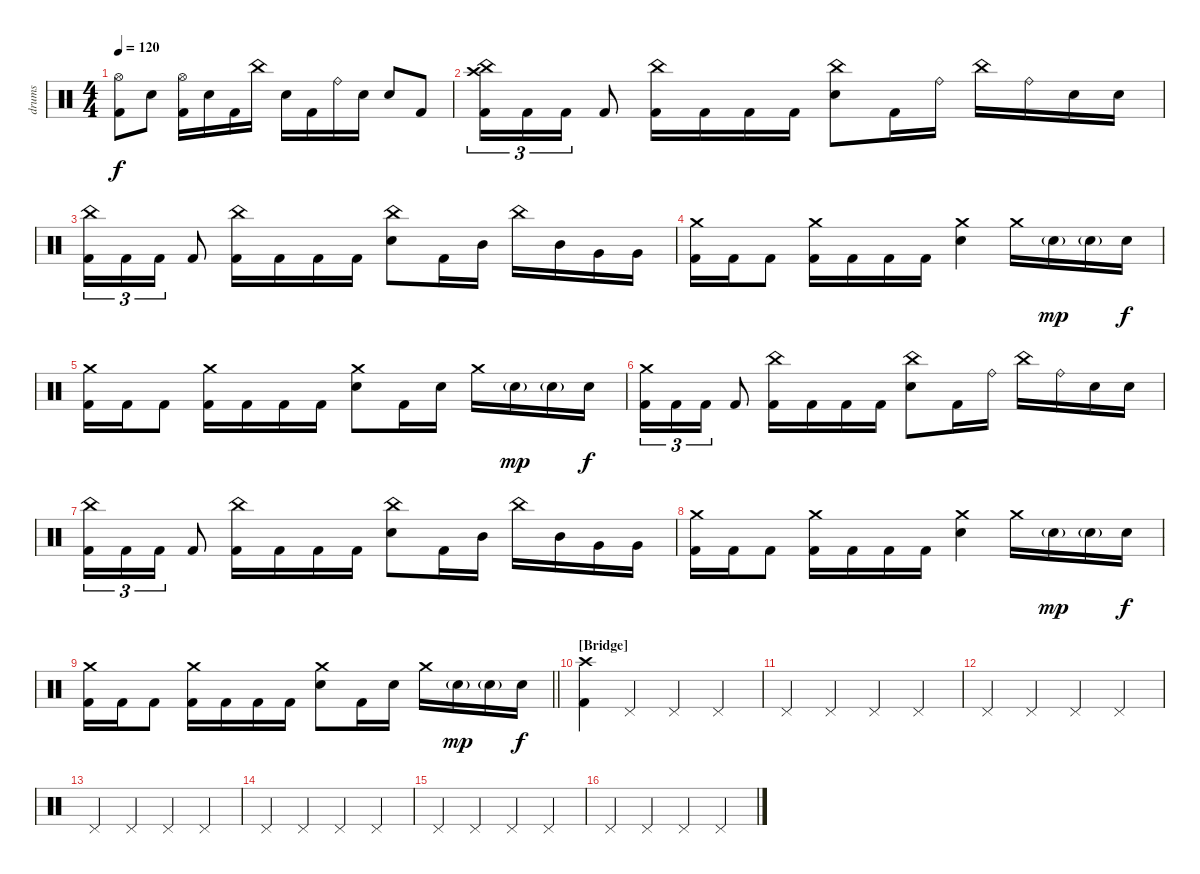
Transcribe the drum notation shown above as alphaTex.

\track ("drums" "drums") {instrument percussion}
\staff {score}
\articulation defaults
\ts (4 4)
\tempo 120
\clef neutral
\ks c
("Hi-Hat (open)" "Kick (hit) 2").8{dy f} "Electric Snare (hit)".8 ("Hi-Hat (open)" "Kick (hit) 2").16 "Electric Snare (hit)".16 "Kick (hit) 2".16 "China (hit)".16 "Electric Snare (hit)".16 "Kick (hit) 2".16 "Ride (bell)".16 "Electric Snare (hit)".16 "Electric Snare (hit)".8 "Kick (hit) 2".8 |
("China (hit)" "Crash high (hit)" "Kick (hit) 2").16{tu (3 2)} "Kick (hit) 2".16{tu (3 2)} "Kick (hit) 2".16{tu (3 2)} "Kick (hit) 2".8 ("China (hit)" "Kick (hit) 2").16 "Kick (hit) 2".16 "Kick (hit) 2".16 "Kick (hit) 2".16 ("China (hit)" "Electric Snare (hit)").8 "Kick (hit) 2".16 "Ride (bell)".16 "China (hit)".16 "Ride (bell)".16 "Electric Snare (hit)".16 "Electric Snare (hit)".16 |
("China (hit)" "Kick (hit) 2").16{tu (3 2)} "Kick (hit) 2".16{tu (3 2)} "Kick (hit) 2".16{tu (3 2)} "Kick (hit) 2".8 ("China (hit)" "Kick (hit) 2").16 "Kick (hit) 2".16 "Kick (hit) 2".16 "Kick (hit) 2".16 ("China (hit)" "Electric Snare (hit)").8 "Kick (hit) 2".16 "Mid Tom (hit)".16 "China (hit)".16 "Mid Tom (hit)".16 "Very Low Tom (hit)".16 "Very Low Tom (hit)".16 |
("Crash medium (hit)" "Kick (hit) 2").16 "Kick (hit) 2".16 "Kick (hit) 2".8 ("Crash medium (hit)" "Kick (hit) 2").16 "Kick (hit) 2".16 "Kick (hit) 2".16 "Kick (hit) 2".16 ("Crash medium (hit)" "Electric Snare (hit)").4 "Crash medium (hit)".16 "Electric Snare (hit)"{g}.16{dy mp} "Electric Snare (hit)"{g}.16 "Electric Snare (hit)".16{dy f} |
("Crash medium (hit)" "Kick (hit) 2").16 "Kick (hit) 2".16 "Kick (hit) 2".8 ("Crash medium (hit)" "Kick (hit) 2").16 "Kick (hit) 2".16 "Kick (hit) 2".16 "Kick (hit) 2".16 ("Crash medium (hit)" "Electric Snare (hit)").8 "Kick (hit) 2".16 "Electric Snare (hit)".16 "Crash medium (hit)".16 "Electric Snare (hit)"{g}.16{dy mp} "Electric Snare (hit)"{g}.16 "Electric Snare (hit)".16{dy f} |
("Crash medium (hit)" "Kick (hit) 2").16{tu (3 2)} "Kick (hit) 2".16{tu (3 2)} "Kick (hit) 2".16{tu (3 2)} "Kick (hit) 2".8 ("China (hit)" "Kick (hit) 2").16 "Kick (hit) 2".16 "Kick (hit) 2".16 "Kick (hit) 2".16 ("China (hit)" "Electric Snare (hit)").8 "Kick (hit) 2".16 "Ride (bell)".16 "China (hit)".16 "Ride (bell)".16 "Electric Snare (hit)".16 "Electric Snare (hit)".16 |
("China (hit)" "Kick (hit) 2").16{tu (3 2)} "Kick (hit) 2".16{tu (3 2)} "Kick (hit) 2".16{tu (3 2)} "Kick (hit) 2".8 ("China (hit)" "Kick (hit) 2").16 "Kick (hit) 2".16 "Kick (hit) 2".16 "Kick (hit) 2".16 ("China (hit)" "Electric Snare (hit)").8 "Kick (hit) 2".16 "Mid Tom (hit)".16 "China (hit)".16 "Mid Tom (hit)".16 "Very Low Tom (hit)".16 "Very Low Tom (hit)".16 |
("Crash medium (hit)" "Kick (hit) 2").16 "Kick (hit) 2".16 "Kick (hit) 2".8 ("Crash medium (hit)" "Kick (hit) 2").16 "Kick (hit) 2".16 "Kick (hit) 2".16 "Kick (hit) 2".16 ("Crash medium (hit)" "Electric Snare (hit)").4 "Crash medium (hit)".16 "Electric Snare (hit)"{g}.16{dy mp} "Electric Snare (hit)"{g}.16 "Electric Snare (hit)".16{dy f} |
\barLineRight lightlight
("Crash medium (hit)" "Kick (hit) 2").16 "Kick (hit) 2".16 "Kick (hit) 2".8 ("Crash medium (hit)" "Kick (hit) 2").16 "Kick (hit) 2".16 "Kick (hit) 2".16 "Kick (hit) 2".16 ("Crash medium (hit)" "Electric Snare (hit)").8 "Kick (hit) 2".16 "Electric Snare (hit)".16 "Crash medium (hit)".16 "Electric Snare (hit)"{g}.16{dy mp} "Electric Snare (hit)"{g}.16 "Electric Snare (hit)".16{dy f} |
\section ("" "[Bridge]")
("Crash high (hit)" "Kick (hit) 2").4 "Pedal Hi-Hat (hit)".4 "Pedal Hi-Hat (hit)".4 "Pedal Hi-Hat (hit)".4 |
"Pedal Hi-Hat (hit)".4 "Pedal Hi-Hat (hit)".4 "Pedal Hi-Hat (hit)".4 "Pedal Hi-Hat (hit)".4 |
"Pedal Hi-Hat (hit)".4 "Pedal Hi-Hat (hit)".4 "Pedal Hi-Hat (hit)".4 "Pedal Hi-Hat (hit)".4 |
"Pedal Hi-Hat (hit)".4 "Pedal Hi-Hat (hit)".4 "Pedal Hi-Hat (hit)".4 "Pedal Hi-Hat (hit)".4 |
"Pedal Hi-Hat (hit)".4 "Pedal Hi-Hat (hit)".4 "Pedal Hi-Hat (hit)".4 "Pedal Hi-Hat (hit)".4 |
"Pedal Hi-Hat (hit)".4 "Pedal Hi-Hat (hit)".4 "Pedal Hi-Hat (hit)".4 "Pedal Hi-Hat (hit)".4 |
"Pedal Hi-Hat (hit)".4 "Pedal Hi-Hat (hit)".4 "Pedal Hi-Hat (hit)".4 "Pedal Hi-Hat (hit)".4
